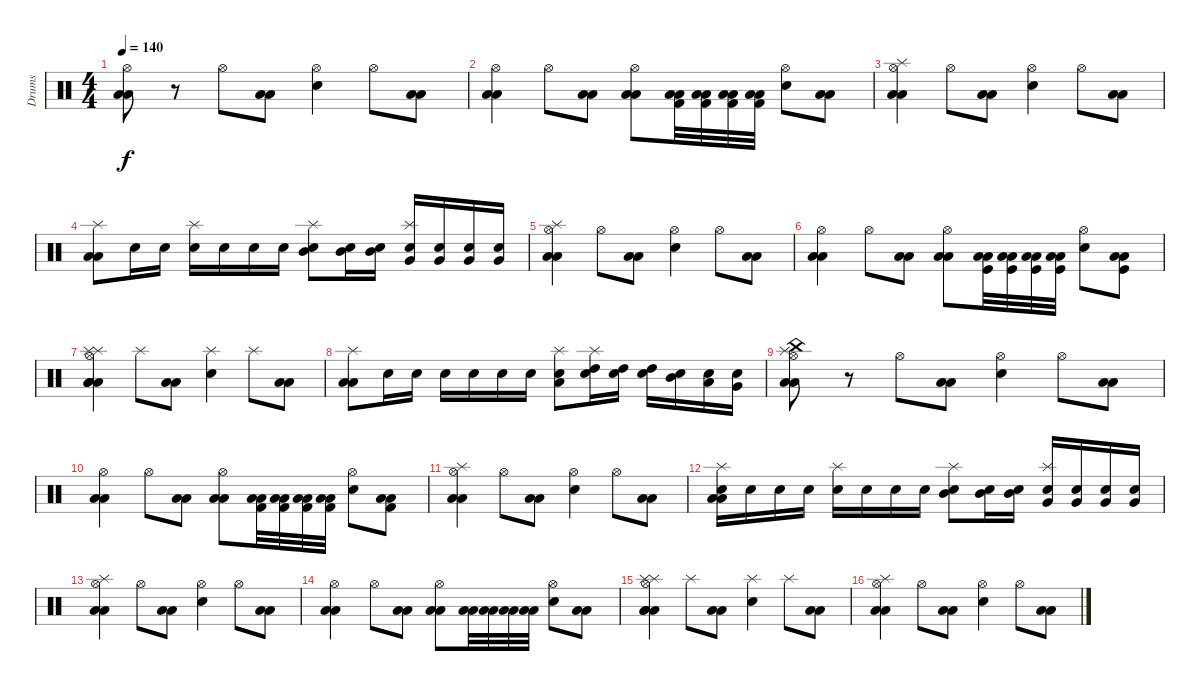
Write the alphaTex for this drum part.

\track ("Drums" "Drums") {instrument percussion}
\staff {score}
\articulation defaults
\ts (4 4)
\tempo 140
\clef neutral
\ks c
("Hi-Hat (open)" "Low Floor Tom (hit)" "Low Tom (hit)").8{dy f} r.8 "Hi-Hat (open)".8 ("Low Tom (hit)" "Low Floor Tom (hit)").8 ("Electric Snare (hit)" "Hi-Hat (open)").4 "Hi-Hat (open)".8 ("Low Tom (hit)" "Low Floor Tom (hit)").8 |
("Hi-Hat (open)" "Low Floor Tom (hit)" "Low Tom (hit)").4 "Hi-Hat (open)".8 ("Low Tom (hit)" "Low Floor Tom (hit)").8 ("Low Tom (hit)" "Low Floor Tom (hit)" "Hi-Hat (open)").8 ("Kick (hit) 2" "Low Floor Tom (hit)" "Low Tom (hit)").32 ("Kick (hit) 2" "Low Tom (hit)" "Low Floor Tom (hit)").32 ("Kick (hit) 2" "Low Tom (hit)" "Low Floor Tom (hit)").32 ("Kick (hit) 2" "Low Tom (hit)" "Low Floor Tom (hit)").32 ("Electric Snare (hit)" "Hi-Hat (open)").8 ("Low Tom (hit)" "Low Floor Tom (hit)").8 |
("Hi-Hat (open)" "Low Floor Tom (hit)" "Low Tom (hit)" "Splash (hit)").4 "Hi-Hat (open)".8 ("Low Tom (hit)" "Low Floor Tom (hit)").8 ("Electric Snare (hit)" "Hi-Hat (open)").4 "Hi-Hat (open)".8 ("Low Tom (hit)" "Low Floor Tom (hit)").8 |
("Splash (hit)" "Low Floor Tom (hit)" "Low Tom (hit)").8 "Electric Snare (hit)".16 "Electric Snare (hit)".16 ("Splash (hit)" "Electric Snare (hit)").16 "Electric Snare (hit)".16 "Electric Snare (hit)".16 "Electric Snare (hit)".16 ("Splash (hit)" "Mid Tom (hit)" "Electric Snare (hit)").8 ("Mid Tom (hit)" "Electric Snare (hit)").16 ("Mid Tom (hit)" "Electric Snare (hit)").16 ("Splash (hit)" "Very Low Tom (hit)" "Electric Snare (hit)").16 ("Very Low Tom (hit)" "Electric Snare (hit)").16 ("Very Low Tom (hit)" "Electric Snare (hit)").16 ("Very Low Tom (hit)" "Electric Snare (hit)").16 |
("Splash (hit)" "Hi-Hat (open)" "Low Floor Tom (hit)" "Low Tom (hit)").4 "Hi-Hat (open)".8 ("Low Tom (hit)" "Low Floor Tom (hit)").8 ("Electric Snare (hit)" "Hi-Hat (open)").4 "Hi-Hat (open)".8 ("Low Tom (hit)" "Low Floor Tom (hit)").8 |
("Hi-Hat (open)" "Low Floor Tom (hit)" "Low Tom (hit)").4 "Hi-Hat (open)".8 ("Low Tom (hit)" "Low Floor Tom (hit)").8 ("Low Tom (hit)" "Low Floor Tom (hit)" "Hi-Hat (open)").8 ("Kick (hit)" "Low Floor Tom (hit)" "Low Tom (hit)").32 ("Kick (hit)" "Low Tom (hit)" "Low Floor Tom (hit)").32 ("Kick (hit)" "Low Tom (hit)" "Low Floor Tom (hit)").32 ("Kick (hit)" "Low Tom (hit)" "Low Floor Tom (hit)").32 ("Electric Snare (hit)" "Hi-Hat (open)").8 ("Kick (hit)" "Low Tom (hit)" "Low Floor Tom (hit)").8 |
("Hi-Hat (open)" "Low Floor Tom (hit)" "Low Tom (hit)" "Splash (hit)" "Splash (hit)" "Low Floor Tom (hit)").4 "Splash (hit)".8 ("Low Floor Tom (hit)" "Low Tom (hit)").8 ("Electric Snare (hit)" "Splash (hit)").4 "Splash (hit)".8 ("Low Tom (hit)" "Low Floor Tom (hit)").8 |
("Low Tom (hit)" "Low Floor Tom (hit)" "Splash (hit)").8 "Electric Snare (hit)".16 "Electric Snare (hit)".16 "Electric Snare (hit)".16 "Electric Snare (hit)".16 "Electric Snare (hit)".16 "Electric Snare (hit)".16 ("Low Tom (hit)" "Splash (hit)" "Electric Snare (hit)").8 ("High Tom (hit)" "Splash (hit)" "Electric Snare (hit)").16 ("High Tom (hit)" "Electric Snare (hit)").16 ("High Tom (hit)" "Electric Snare (hit)").16 ("Mid Tom (hit)" "Electric Snare (hit)").16 ("Low Tom (hit)" "Electric Snare (hit)").16 ("Very Low Tom (hit)" "Electric Snare (hit)").16 |
("China (hit)" "Splash (hit)" "Hi-Hat (open)" "Low Floor Tom (hit)" "Low Tom (hit)").8 r.8 "Hi-Hat (open)".8 ("Low Tom (hit)" "Low Floor Tom (hit)").8 ("Electric Snare (hit)" "Hi-Hat (open)").4 "Hi-Hat (open)".8 ("Low Tom (hit)" "Low Floor Tom (hit)").8 |
("Hi-Hat (open)" "Low Floor Tom (hit)" "Low Tom (hit)").4 "Hi-Hat (open)".8 ("Low Tom (hit)" "Low Floor Tom (hit)").8 ("Low Tom (hit)" "Low Floor Tom (hit)" "Hi-Hat (open)").8 ("Kick (hit) 2" "Low Floor Tom (hit)" "Low Tom (hit)").32 ("Kick (hit) 2" "Low Tom (hit)" "Low Floor Tom (hit)").32 ("Kick (hit) 2" "Low Tom (hit)" "Low Floor Tom (hit)").32 ("Kick (hit) 2" "Low Tom (hit)" "Low Floor Tom (hit)").32 ("Electric Snare (hit)" "Hi-Hat (open)").8 ("Kick (hit) 2" "Low Tom (hit)" "Low Floor Tom (hit)").8 |
("Hi-Hat (open)" "Low Floor Tom (hit)" "Low Tom (hit)" "Splash (hit)").4 "Hi-Hat (open)".8 ("Low Tom (hit)" "Low Floor Tom (hit)").8 ("Electric Snare (hit)" "Hi-Hat (open)").4 "Hi-Hat (open)".8 ("Low Tom (hit)" "Low Floor Tom (hit)").8 |
("Snare (hit) 2" "Splash (hit)" "Low Floor Tom (hit)" "Low Tom (hit)").16 "Snare (hit) 2".16 "Electric Snare (hit)".16 "Electric Snare (hit)".16 ("Splash (hit)" "Electric Snare (hit)").16 "Electric Snare (hit)".16 "Electric Snare (hit)".16 "Electric Snare (hit)".16 ("Splash (hit)" "Mid Tom (hit)" "Electric Snare (hit)").8 ("Mid Tom (hit)" "Electric Snare (hit)").16 ("Mid Tom (hit)" "Electric Snare (hit)").16 ("Splash (hit)" "Very Low Tom (hit)" "Electric Snare (hit)").16 ("Very Low Tom (hit)" "Electric Snare (hit)").16 ("Very Low Tom (hit)" "Electric Snare (hit)").16 ("Very Low Tom (hit)" "Electric Snare (hit)").16 |
("Splash (hit)" "Hi-Hat (open)" "Low Floor Tom (hit)" "Low Tom (hit)").4 "Hi-Hat (open)".8 ("Low Tom (hit)" "Low Floor Tom (hit)").8 ("Electric Snare (hit)" "Hi-Hat (open)").4 "Hi-Hat (open)".8 ("Low Tom (hit)" "Low Floor Tom (hit)").8 |
("Hi-Hat (open)" "Low Floor Tom (hit)" "Low Tom (hit)").4 "Hi-Hat (open)".8 ("Low Tom (hit)" "Low Floor Tom (hit)").8 ("Low Tom (hit)" "Low Floor Tom (hit)" "Hi-Hat (open)").8 ("Low Floor Tom (hit)" "Low Tom (hit)").32 ("Low Tom (hit)" "Low Floor Tom (hit)").32 ("Low Tom (hit)" "Low Floor Tom (hit)").32 ("Low Tom (hit)" "Low Floor Tom (hit)").32 ("Electric Snare (hit)" "Hi-Hat (open)").8 ("Low Tom (hit)" "Low Floor Tom (hit)").8 |
("Hi-Hat (open)" "Low Floor Tom (hit)" "Low Tom (hit)" "Splash (hit)" "Splash (hit)" "Low Floor Tom (hit)").4 "Splash (hit)".8 ("Low Floor Tom (hit)" "Low Tom (hit)").8 ("Electric Snare (hit)" "Splash (hit)").4 "Splash (hit)".8 ("Low Tom (hit)" "Low Floor Tom (hit)").8 |
("Hi-Hat (open)" "Low Tom (hit)" "Low Floor Tom (hit)" "Splash (hit)").4 "Hi-Hat (open)".8 ("Low Tom (hit)" "Low Floor Tom (hit)").8 ("Electric Snare (hit)" "Hi-Hat (open)").4 "Hi-Hat (open)".8 ("Low Tom (hit)" "Low Floor Tom (hit)").8
